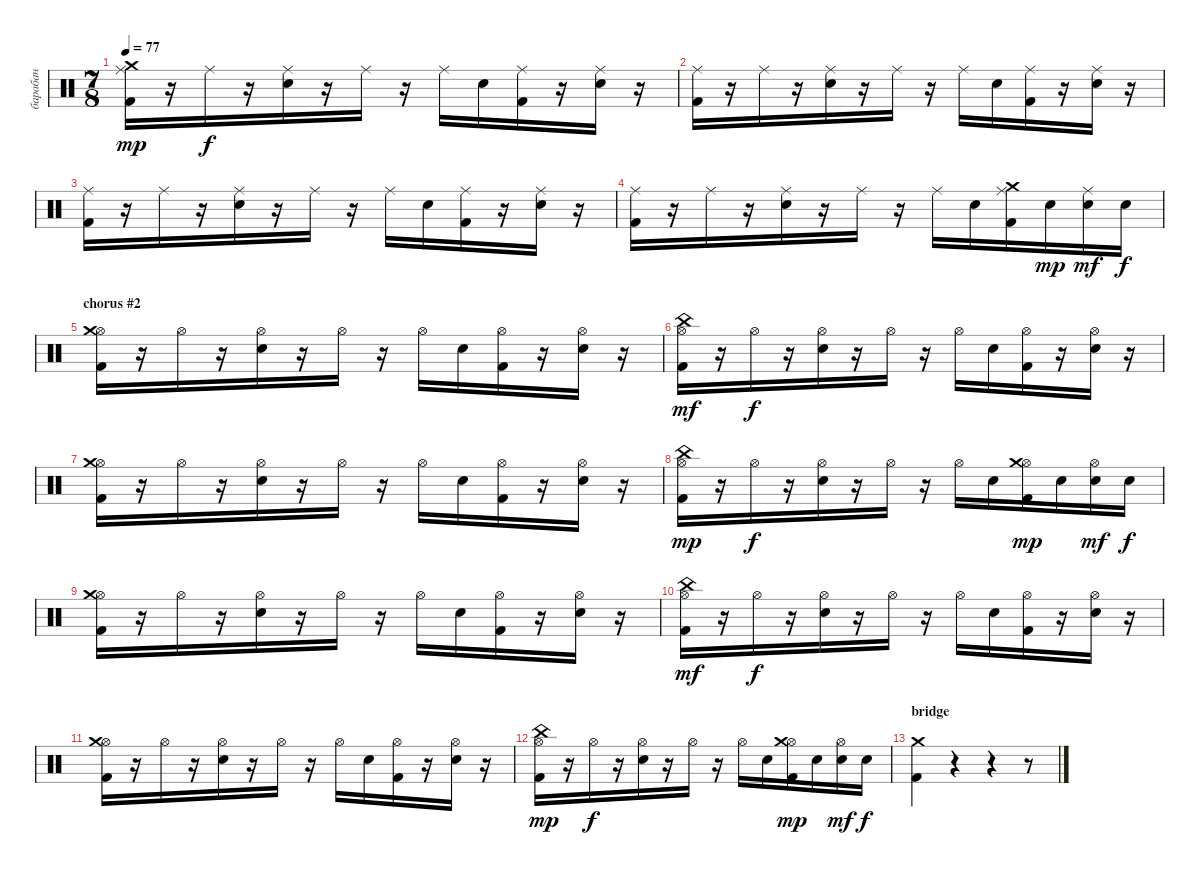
\track ("барабан" "барабан") {instrument percussion}
\staff {score}
\articulation defaults
\ts (7 8)
\tempo 77
\clef neutral
\ks c
("Ride (middle)" "Crash medium (hit)" "Kick (hit) 2").16{dy mp} r.16 "Ride (middle)".16{dy f} r.16 ("Ride (middle)" "Electric Snare (hit)").16 r.16 "Ride (middle)".16 r.16 "Ride (middle)".16 "Electric Snare (hit)".16 ("Ride (middle)" "Kick (hit) 2").16 r.16 ("Ride (middle)" "Electric Snare (hit)").16 r.16 |
("Ride (middle)" "Kick (hit) 2").16 r.16 "Ride (middle)".16 r.16 ("Ride (middle)" "Electric Snare (hit)").16 r.16 "Ride (middle)".16 r.16 "Ride (middle)".16 "Electric Snare (hit)".16 ("Ride (middle)" "Kick (hit) 2").16 r.16 ("Ride (middle)" "Electric Snare (hit)").16 r.16 |
("Ride (middle)" "Kick (hit) 2").16 r.16 "Ride (middle)".16 r.16 ("Ride (middle)" "Electric Snare (hit)").16 r.16 "Ride (middle)".16 r.16 "Ride (middle)".16 "Electric Snare (hit)".16 ("Ride (middle)" "Kick (hit) 2").16 r.16 ("Ride (middle)" "Electric Snare (hit)").16 r.16 |
("Ride (middle)" "Kick (hit) 2").16 r.16 "Ride (middle)".16 r.16 ("Ride (middle)" "Electric Snare (hit)").16 r.16 "Ride (middle)".16 r.16 "Ride (middle)".16 "Electric Snare (hit)".16 ("Ride (middle)" "Crash medium (hit)" "Kick (hit) 2").16 "Electric Snare (hit)".16{dy mp} ("Ride (middle)" "Electric Snare (hit)").16{dy mf} "Electric Snare (hit)".16{dy f} |
\section ("" "chorus #2")
("Hi-Hat (open)" "Crash medium (hit)" "Kick (hit) 2").16 r.16 "Hi-Hat (open)".16 r.16 ("Hi-Hat (open)" "Electric Snare (hit)").16 r.16 "Hi-Hat (open)".16 r.16 "Hi-Hat (open)".16 "Electric Snare (hit)".16 ("Hi-Hat (open)" "Kick (hit) 2").16 r.16 ("Hi-Hat (open)" "Electric Snare (hit)").16 r.16 |
("Hi-Hat (open)" "China (hit)" "Kick (hit) 2").16{dy mf} r.16 "Hi-Hat (open)".16{dy f} r.16 ("Hi-Hat (open)" "Electric Snare (hit)").16 r.16 "Hi-Hat (open)".16 r.16 "Hi-Hat (open)".16 "Electric Snare (hit)".16 ("Hi-Hat (open)" "Kick (hit) 2").16 r.16 ("Hi-Hat (open)" "Electric Snare (hit)").16 r.16 |
("Hi-Hat (open)" "Crash medium (hit)" "Kick (hit) 2").16 r.16 "Hi-Hat (open)".16 r.16 ("Hi-Hat (open)" "Electric Snare (hit)").16 r.16 "Hi-Hat (open)".16 r.16 "Hi-Hat (open)".16 "Electric Snare (hit)".16 ("Hi-Hat (open)" "Kick (hit) 2").16 r.16 ("Hi-Hat (open)" "Electric Snare (hit)").16 r.16 |
("Hi-Hat (open)" "China (hit)" "Kick (hit) 2").16{dy mp} r.16 "Hi-Hat (open)".16{dy f} r.16 ("Hi-Hat (open)" "Electric Snare (hit)").16 r.16 "Hi-Hat (open)".16 r.16 "Hi-Hat (open)".16 "Electric Snare (hit)".16 ("Hi-Hat (open)" "Crash medium (hit)" "Kick (hit) 2").16{dy mp} "Electric Snare (hit)".16 ("Hi-Hat (open)" "Electric Snare (hit)").16{dy mf} "Electric Snare (hit)".16{dy f} |
("Hi-Hat (open)" "Crash medium (hit)" "Kick (hit) 2").16 r.16 "Hi-Hat (open)".16 r.16 ("Hi-Hat (open)" "Electric Snare (hit)").16 r.16 "Hi-Hat (open)".16 r.16 "Hi-Hat (open)".16 "Electric Snare (hit)".16 ("Hi-Hat (open)" "Kick (hit) 2").16 r.16 ("Hi-Hat (open)" "Electric Snare (hit)").16 r.16 |
("Hi-Hat (open)" "China (hit)" "Kick (hit) 2").16{dy mf} r.16 "Hi-Hat (open)".16{dy f} r.16 ("Hi-Hat (open)" "Electric Snare (hit)").16 r.16 "Hi-Hat (open)".16 r.16 "Hi-Hat (open)".16 "Electric Snare (hit)".16 ("Hi-Hat (open)" "Kick (hit) 2").16 r.16 ("Hi-Hat (open)" "Electric Snare (hit)").16 r.16 |
("Hi-Hat (open)" "Crash medium (hit)" "Kick (hit) 2").16 r.16 "Hi-Hat (open)".16 r.16 ("Hi-Hat (open)" "Electric Snare (hit)").16 r.16 "Hi-Hat (open)".16 r.16 "Hi-Hat (open)".16 "Electric Snare (hit)".16 ("Hi-Hat (open)" "Kick (hit) 2").16 r.16 ("Hi-Hat (open)" "Electric Snare (hit)").16 r.16 |
("Hi-Hat (open)" "China (hit)" "Kick (hit) 2").16{dy mp} r.16 "Hi-Hat (open)".16{dy f} r.16 ("Hi-Hat (open)" "Electric Snare (hit)").16 r.16 "Hi-Hat (open)".16 r.16 "Hi-Hat (open)".16 "Electric Snare (hit)".16 ("Hi-Hat (open)" "Crash medium (hit)" "Kick (hit) 2").16{dy mp} "Electric Snare (hit)".16 ("Hi-Hat (open)" "Electric Snare (hit)").16{dy mf} "Electric Snare (hit)".16{dy f} |
\section ("" "bridge")
("Crash medium (hit)" "Kick (hit) 2").4 r.4 r.4 r.8
